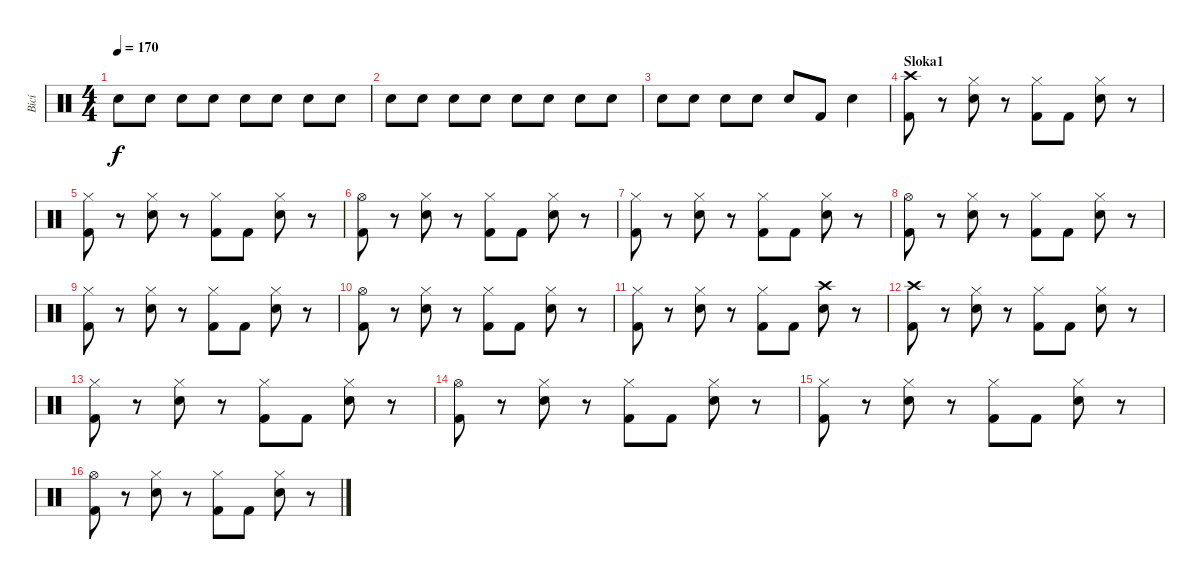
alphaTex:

\track ("Bicí" "Bicí") {instrument percussion}
\staff {score}
\articulation defaults
\ts (4 4)
\tempo 170
\clef neutral
\ks c "Snare (hit) 2".8{dy f} "Snare (hit) 2".8 "Snare (hit) 2".8 "Snare (hit) 2".8 "Snare (hit) 2".8 "Snare (hit) 2".8 "Snare (hit) 2".8 "Snare (hit) 2".8
|
"Snare (hit) 2".8 "Snare (hit) 2".8 "Snare (hit) 2".8 "Snare (hit) 2".8 "Snare (hit) 2".8 "Snare (hit) 2".8 "Snare (hit) 2".8 "Snare (hit) 2".8 |
"Snare (hit) 2".8 "Snare (hit) 2".8 "Snare (hit) 2".8 "Snare (hit) 2".8 "Snare (hit) 2".8 "Kick (hit) 2".8 "Snare (hit) 2".4 |
\section ("" "Sloka1")
("Crash high (hit)" "Kick (hit) 2").8 r.8 ("Hi-Hat (closed)" "Snare (hit) 2").8 r.8 ("Hi-Hat (closed)" "Kick (hit) 2").8 "Kick (hit) 2".8 ("Hi-Hat (closed)" "Snare (hit) 2").8 r.8 |
("Hi-Hat (closed)" "Kick (hit) 2").8 r.8 ("Hi-Hat (closed)" "Snare (hit) 2").8 r.8 ("Hi-Hat (closed)" "Kick (hit) 2").8 "Kick (hit) 2".8 ("Hi-Hat (closed)" "Snare (hit) 2").8 r.8 |
("Hi-Hat (open)" "Kick (hit) 2").8 r.8 ("Hi-Hat (closed)" "Snare (hit) 2").8 r.8 ("Hi-Hat (closed)" "Kick (hit) 2").8 "Kick (hit) 2".8 ("Hi-Hat (closed)" "Snare (hit) 2").8 r.8 |
("Hi-Hat (closed)" "Kick (hit) 2").8 r.8 ("Hi-Hat (closed)" "Snare (hit) 2").8 r.8 ("Hi-Hat (closed)" "Kick (hit) 2").8 "Kick (hit) 2".8 ("Hi-Hat (closed)" "Snare (hit) 2").8 r.8 |
("Hi-Hat (open)" "Kick (hit) 2").8 r.8 ("Hi-Hat (closed)" "Snare (hit) 2").8 r.8 ("Hi-Hat (closed)" "Kick (hit) 2").8 "Kick (hit) 2".8 ("Hi-Hat (closed)" "Snare (hit) 2").8 r.8 |
("Hi-Hat (closed)" "Kick (hit) 2").8 r.8 ("Hi-Hat (closed)" "Snare (hit) 2").8 r.8 ("Hi-Hat (closed)" "Kick (hit) 2").8 "Kick (hit) 2".8 ("Hi-Hat (closed)" "Snare (hit) 2").8 r.8 |
("Hi-Hat (open)" "Kick (hit) 2").8 r.8 ("Hi-Hat (closed)" "Snare (hit) 2").8 r.8 ("Hi-Hat (closed)" "Kick (hit) 2").8 "Kick (hit) 2".8 ("Hi-Hat (closed)" "Snare (hit) 2").8 r.8 |
("Hi-Hat (closed)" "Kick (hit) 2").8 r.8 ("Hi-Hat (closed)" "Snare (hit) 2").8 r.8 ("Hi-Hat (closed)" "Kick (hit) 2").8 "Kick (hit) 2".8 ("Crash high (hit)" "Snare (hit) 2").8 r.8 |
("Crash high (hit)" "Kick (hit) 2").8 r.8 ("Hi-Hat (closed)" "Snare (hit) 2").8 r.8 ("Hi-Hat (closed)" "Kick (hit) 2").8 "Kick (hit) 2".8 ("Hi-Hat (closed)" "Snare (hit) 2").8 r.8 |
("Hi-Hat (closed)" "Kick (hit) 2").8 r.8 ("Hi-Hat (closed)" "Snare (hit) 2").8 r.8 ("Hi-Hat (closed)" "Kick (hit) 2").8 "Kick (hit) 2".8 ("Hi-Hat (closed)" "Snare (hit) 2").8 r.8 |
("Hi-Hat (open)" "Kick (hit) 2").8 r.8 ("Hi-Hat (closed)" "Snare (hit) 2").8 r.8 ("Hi-Hat (closed)" "Kick (hit) 2").8 "Kick (hit) 2".8 ("Hi-Hat (closed)" "Snare (hit) 2").8 r.8 |
("Hi-Hat (closed)" "Kick (hit) 2").8 r.8 ("Hi-Hat (closed)" "Snare (hit) 2").8 r.8 ("Hi-Hat (closed)" "Kick (hit) 2").8 "Kick (hit) 2".8 ("Hi-Hat (closed)" "Snare (hit) 2").8 r.8 |
("Hi-Hat (open)" "Kick (hit) 2").8 r.8 ("Hi-Hat (closed)" "Snare (hit) 2").8 r.8 ("Hi-Hat (closed)" "Kick (hit) 2").8 "Kick (hit) 2".8 ("Hi-Hat (closed)" "Snare (hit) 2").8 r.8
